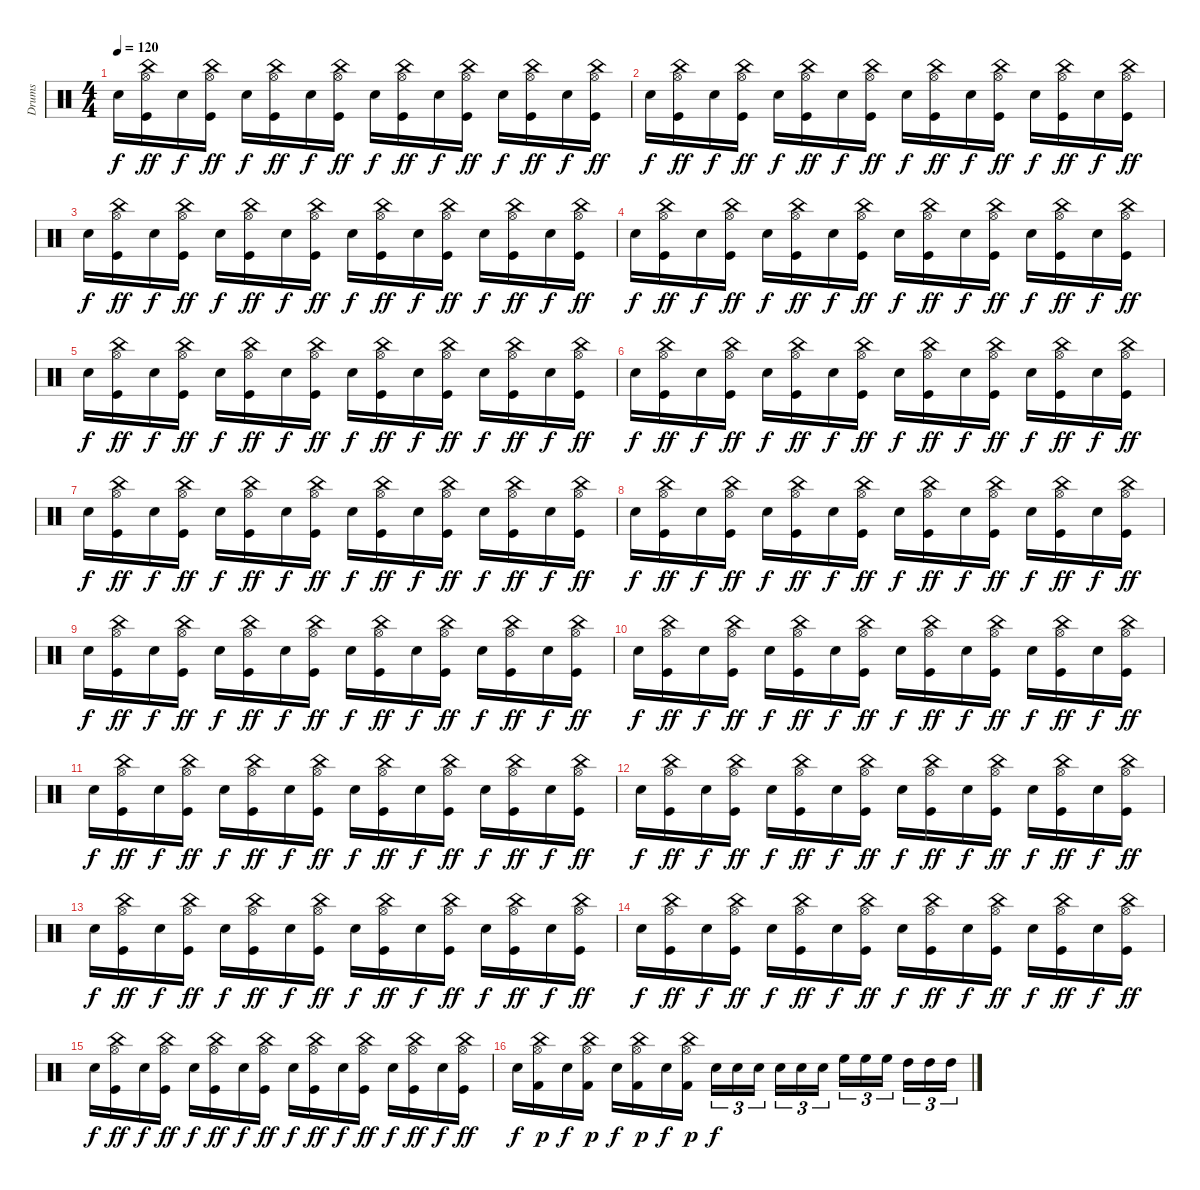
\track ("Drums" "Drums") {instrument percussion}
\staff {score}
\articulation defaults
\ts (4 4)
\tempo 120
\clef neutral
\ks c "Electric Snare (hit)".16{dy f}
("China (hit)" "Hi-Hat (open)" "Kick (hit)").16{dy ff} "Electric Snare (hit)".16{dy f} ("China (hit)" "Hi-Hat (open)" "Kick (hit)").16{dy ff} "Electric Snare (hit)".16{dy f} ("China (hit)" "Hi-Hat (open)" "Kick (hit)").16{dy ff} "Electric Snare (hit)".16{dy f} ("China (hit)" "Hi-Hat (open)" "Kick (hit)").16{dy ff} "Electric Snare (hit)".16{dy f} ("China (hit)" "Hi-Hat (open)" "Kick (hit)").16{dy ff} "Electric Snare (hit)".16{dy f} ("China (hit)" "Hi-Hat (open)" "Kick (hit)").16{dy ff} "Electric Snare (hit)".16{dy f} ("China (hit)" "Hi-Hat (open)" "Kick (hit)").16{dy ff} "Electric Snare (hit)".16{dy f} ("China (hit)" "Hi-Hat (open)" "Kick (hit)").16{dy ff} |
"Electric Snare (hit)".16{dy f} ("China (hit)" "Hi-Hat (open)" "Kick (hit)").16{dy ff} "Electric Snare (hit)".16{dy f} ("China (hit)" "Hi-Hat (open)" "Kick (hit)").16{dy ff} "Electric Snare (hit)".16{dy f} ("China (hit)" "Hi-Hat (open)" "Kick (hit)").16{dy ff} "Electric Snare (hit)".16{dy f} ("China (hit)" "Hi-Hat (open)" "Kick (hit)").16{dy ff} "Electric Snare (hit)".16{dy f} ("China (hit)" "Hi-Hat (open)" "Kick (hit)").16{dy ff} "Electric Snare (hit)".16{dy f} ("China (hit)" "Hi-Hat (open)" "Kick (hit)").16{dy ff} "Electric Snare (hit)".16{dy f} ("China (hit)" "Hi-Hat (open)" "Kick (hit)").16{dy ff} "Electric Snare (hit)".16{dy f} ("China (hit)" "Hi-Hat (open)" "Kick (hit)").16{dy ff} |
"Electric Snare (hit)".16{dy f} ("China (hit)" "Hi-Hat (open)" "Kick (hit)").16{dy ff} "Electric Snare (hit)".16{dy f} ("China (hit)" "Hi-Hat (open)" "Kick (hit)").16{dy ff} "Electric Snare (hit)".16{dy f} ("China (hit)" "Hi-Hat (open)" "Kick (hit)").16{dy ff} "Electric Snare (hit)".16{dy f} ("China (hit)" "Hi-Hat (open)" "Kick (hit)").16{dy ff} "Electric Snare (hit)".16{dy f} ("China (hit)" "Hi-Hat (open)" "Kick (hit)").16{dy ff} "Electric Snare (hit)".16{dy f} ("China (hit)" "Hi-Hat (open)" "Kick (hit)").16{dy ff} "Electric Snare (hit)".16{dy f} ("China (hit)" "Hi-Hat (open)" "Kick (hit)").16{dy ff} "Electric Snare (hit)".16{dy f} ("China (hit)" "Hi-Hat (open)" "Kick (hit)").16{dy ff} |
"Electric Snare (hit)".16{dy f} ("China (hit)" "Hi-Hat (open)" "Kick (hit)").16{dy ff} "Electric Snare (hit)".16{dy f} ("China (hit)" "Hi-Hat (open)" "Kick (hit)").16{dy ff} "Electric Snare (hit)".16{dy f} ("China (hit)" "Hi-Hat (open)" "Kick (hit)").16{dy ff} "Electric Snare (hit)".16{dy f} ("China (hit)" "Hi-Hat (open)" "Kick (hit)").16{dy ff} "Electric Snare (hit)".16{dy f} ("China (hit)" "Hi-Hat (open)" "Kick (hit)").16{dy ff} "Electric Snare (hit)".16{dy f} ("China (hit)" "Hi-Hat (open)" "Kick (hit)").16{dy ff} "Electric Snare (hit)".16{dy f} ("China (hit)" "Hi-Hat (open)" "Kick (hit)").16{dy ff} "Electric Snare (hit)".16{dy f} ("China (hit)" "Hi-Hat (open)" "Kick (hit)").16{dy ff} |
"Electric Snare (hit)".16{dy f} ("China (hit)" "Hi-Hat (open)" "Kick (hit)").16{dy ff} "Electric Snare (hit)".16{dy f} ("China (hit)" "Hi-Hat (open)" "Kick (hit)").16{dy ff} "Electric Snare (hit)".16{dy f} ("China (hit)" "Hi-Hat (open)" "Kick (hit)").16{dy ff} "Electric Snare (hit)".16{dy f} ("China (hit)" "Hi-Hat (open)" "Kick (hit)").16{dy ff} "Electric Snare (hit)".16{dy f} ("China (hit)" "Hi-Hat (open)" "Kick (hit)").16{dy ff} "Electric Snare (hit)".16{dy f} ("China (hit)" "Hi-Hat (open)" "Kick (hit)").16{dy ff} "Electric Snare (hit)".16{dy f} ("China (hit)" "Hi-Hat (open)" "Kick (hit)").16{dy ff} "Electric Snare (hit)".16{dy f} ("China (hit)" "Hi-Hat (open)" "Kick (hit)").16{dy ff} |
"Electric Snare (hit)".16{dy f} ("China (hit)" "Hi-Hat (open)" "Kick (hit)").16{dy ff} "Electric Snare (hit)".16{dy f} ("China (hit)" "Hi-Hat (open)" "Kick (hit)").16{dy ff} "Electric Snare (hit)".16{dy f} ("China (hit)" "Hi-Hat (open)" "Kick (hit)").16{dy ff} "Electric Snare (hit)".16{dy f} ("China (hit)" "Hi-Hat (open)" "Kick (hit)").16{dy ff} "Electric Snare (hit)".16{dy f} ("China (hit)" "Hi-Hat (open)" "Kick (hit)").16{dy ff} "Electric Snare (hit)".16{dy f} ("China (hit)" "Hi-Hat (open)" "Kick (hit)").16{dy ff} "Electric Snare (hit)".16{dy f} ("China (hit)" "Hi-Hat (open)" "Kick (hit)").16{dy ff} "Electric Snare (hit)".16{dy f} ("China (hit)" "Hi-Hat (open)" "Kick (hit)").16{dy ff} |
"Electric Snare (hit)".16{dy f} ("China (hit)" "Hi-Hat (open)" "Kick (hit)").16{dy ff} "Electric Snare (hit)".16{dy f} ("China (hit)" "Hi-Hat (open)" "Kick (hit)").16{dy ff} "Electric Snare (hit)".16{dy f} ("China (hit)" "Hi-Hat (open)" "Kick (hit)").16{dy ff} "Electric Snare (hit)".16{dy f} ("China (hit)" "Hi-Hat (open)" "Kick (hit)").16{dy ff} "Electric Snare (hit)".16{dy f} ("China (hit)" "Hi-Hat (open)" "Kick (hit)").16{dy ff} "Electric Snare (hit)".16{dy f} ("China (hit)" "Hi-Hat (open)" "Kick (hit)").16{dy ff} "Electric Snare (hit)".16{dy f} ("China (hit)" "Hi-Hat (open)" "Kick (hit)").16{dy ff} "Electric Snare (hit)".16{dy f} ("China (hit)" "Hi-Hat (open)" "Kick (hit)").16{dy ff} |
"Electric Snare (hit)".16{dy f} ("China (hit)" "Hi-Hat (open)" "Kick (hit)").16{dy ff} "Electric Snare (hit)".16{dy f} ("China (hit)" "Hi-Hat (open)" "Kick (hit)").16{dy ff} "Electric Snare (hit)".16{dy f} ("China (hit)" "Hi-Hat (open)" "Kick (hit)").16{dy ff} "Electric Snare (hit)".16{dy f} ("China (hit)" "Hi-Hat (open)" "Kick (hit)").16{dy ff} "Electric Snare (hit)".16{dy f} ("China (hit)" "Hi-Hat (open)" "Kick (hit)").16{dy ff} "Electric Snare (hit)".16{dy f} ("China (hit)" "Hi-Hat (open)" "Kick (hit)").16{dy ff} "Electric Snare (hit)".16{dy f} ("China (hit)" "Hi-Hat (open)" "Kick (hit)").16{dy ff} "Electric Snare (hit)".16{dy f} ("China (hit)" "Hi-Hat (open)" "Kick (hit)").16{dy ff} |
"Electric Snare (hit)".16{dy f} ("China (hit)" "Hi-Hat (open)" "Kick (hit)").16{dy ff} "Electric Snare (hit)".16{dy f} ("China (hit)" "Hi-Hat (open)" "Kick (hit)").16{dy ff} "Electric Snare (hit)".16{dy f} ("China (hit)" "Hi-Hat (open)" "Kick (hit)").16{dy ff} "Electric Snare (hit)".16{dy f} ("China (hit)" "Hi-Hat (open)" "Kick (hit)").16{dy ff} "Electric Snare (hit)".16{dy f} ("China (hit)" "Hi-Hat (open)" "Kick (hit)").16{dy ff} "Electric Snare (hit)".16{dy f} ("China (hit)" "Hi-Hat (open)" "Kick (hit)").16{dy ff} "Electric Snare (hit)".16{dy f} ("China (hit)" "Hi-Hat (open)" "Kick (hit)").16{dy ff} "Electric Snare (hit)".16{dy f} ("China (hit)" "Hi-Hat (open)" "Kick (hit)").16{dy ff} |
"Electric Snare (hit)".16{dy f} ("China (hit)" "Hi-Hat (open)" "Kick (hit)").16{dy ff} "Electric Snare (hit)".16{dy f} ("China (hit)" "Hi-Hat (open)" "Kick (hit)").16{dy ff} "Electric Snare (hit)".16{dy f} ("China (hit)" "Hi-Hat (open)" "Kick (hit)").16{dy ff} "Electric Snare (hit)".16{dy f} ("China (hit)" "Hi-Hat (open)" "Kick (hit)").16{dy ff} "Electric Snare (hit)".16{dy f} ("China (hit)" "Hi-Hat (open)" "Kick (hit)").16{dy ff} "Electric Snare (hit)".16{dy f} ("China (hit)" "Hi-Hat (open)" "Kick (hit)").16{dy ff} "Electric Snare (hit)".16{dy f} ("China (hit)" "Hi-Hat (open)" "Kick (hit)").16{dy ff} "Electric Snare (hit)".16{dy f} ("China (hit)" "Hi-Hat (open)" "Kick (hit)").16{dy ff} |
"Electric Snare (hit)".16{dy f} ("China (hit)" "Hi-Hat (open)" "Kick (hit)").16{dy ff} "Electric Snare (hit)".16{dy f} ("China (hit)" "Hi-Hat (open)" "Kick (hit)").16{dy ff} "Electric Snare (hit)".16{dy f} ("China (hit)" "Hi-Hat (open)" "Kick (hit)").16{dy ff} "Electric Snare (hit)".16{dy f} ("China (hit)" "Hi-Hat (open)" "Kick (hit)").16{dy ff} "Electric Snare (hit)".16{dy f} ("China (hit)" "Hi-Hat (open)" "Kick (hit)").16{dy ff} "Electric Snare (hit)".16{dy f} ("China (hit)" "Hi-Hat (open)" "Kick (hit)").16{dy ff} "Electric Snare (hit)".16{dy f} ("China (hit)" "Hi-Hat (open)" "Kick (hit)").16{dy ff} "Electric Snare (hit)".16{dy f} ("China (hit)" "Hi-Hat (open)" "Kick (hit)").16{dy ff} |
"Electric Snare (hit)".16{dy f} ("China (hit)" "Hi-Hat (open)" "Kick (hit)").16{dy ff} "Electric Snare (hit)".16{dy f} ("China (hit)" "Hi-Hat (open)" "Kick (hit)").16{dy ff} "Electric Snare (hit)".16{dy f} ("China (hit)" "Hi-Hat (open)" "Kick (hit)").16{dy ff} "Electric Snare (hit)".16{dy f} ("China (hit)" "Hi-Hat (open)" "Kick (hit)").16{dy ff} "Electric Snare (hit)".16{dy f} ("China (hit)" "Hi-Hat (open)" "Kick (hit)").16{dy ff} "Electric Snare (hit)".16{dy f} ("China (hit)" "Hi-Hat (open)" "Kick (hit)").16{dy ff} "Electric Snare (hit)".16{dy f} ("China (hit)" "Hi-Hat (open)" "Kick (hit)").16{dy ff} "Electric Snare (hit)".16{dy f} ("China (hit)" "Hi-Hat (open)" "Kick (hit)").16{dy ff} |
"Electric Snare (hit)".16{dy f} ("China (hit)" "Hi-Hat (open)" "Kick (hit)").16{dy ff} "Electric Snare (hit)".16{dy f} ("China (hit)" "Hi-Hat (open)" "Kick (hit)").16{dy ff} "Electric Snare (hit)".16{dy f} ("China (hit)" "Hi-Hat (open)" "Kick (hit)").16{dy ff} "Electric Snare (hit)".16{dy f} ("China (hit)" "Hi-Hat (open)" "Kick (hit)").16{dy ff} "Electric Snare (hit)".16{dy f} ("China (hit)" "Hi-Hat (open)" "Kick (hit)").16{dy ff} "Electric Snare (hit)".16{dy f} ("China (hit)" "Hi-Hat (open)" "Kick (hit)").16{dy ff} "Electric Snare (hit)".16{dy f} ("China (hit)" "Hi-Hat (open)" "Kick (hit)").16{dy ff} "Electric Snare (hit)".16{dy f} ("China (hit)" "Hi-Hat (open)" "Kick (hit)").16{dy ff} |
"Electric Snare (hit)".16{dy f} ("China (hit)" "Hi-Hat (open)" "Kick (hit)").16{dy ff} "Electric Snare (hit)".16{dy f} ("China (hit)" "Hi-Hat (open)" "Kick (hit)").16{dy ff} "Electric Snare (hit)".16{dy f} ("China (hit)" "Hi-Hat (open)" "Kick (hit)").16{dy ff} "Electric Snare (hit)".16{dy f} ("China (hit)" "Hi-Hat (open)" "Kick (hit)").16{dy ff} "Electric Snare (hit)".16{dy f} ("China (hit)" "Hi-Hat (open)" "Kick (hit)").16{dy ff} "Electric Snare (hit)".16{dy f} ("China (hit)" "Hi-Hat (open)" "Kick (hit)").16{dy ff} "Electric Snare (hit)".16{dy f} ("China (hit)" "Hi-Hat (open)" "Kick (hit)").16{dy ff} "Electric Snare (hit)".16{dy f} ("China (hit)" "Hi-Hat (open)" "Kick (hit)").16{dy ff} |
"Electric Snare (hit)".16{dy f} ("China (hit)" "Hi-Hat (open)" "Kick (hit)").16{dy ff} "Electric Snare (hit)".16{dy f} ("China (hit)" "Hi-Hat (open)" "Kick (hit)").16{dy ff} "Electric Snare (hit)".16{dy f} ("China (hit)" "Hi-Hat (open)" "Kick (hit)").16{dy ff} "Electric Snare (hit)".16{dy f} ("China (hit)" "Hi-Hat (open)" "Kick (hit)").16{dy ff} "Electric Snare (hit)".16{dy f} ("China (hit)" "Hi-Hat (open)" "Kick (hit)").16{dy ff} "Electric Snare (hit)".16{dy f} ("China (hit)" "Hi-Hat (open)" "Kick (hit)").16{dy ff} "Electric Snare (hit)".16{dy f} ("China (hit)" "Hi-Hat (open)" "Kick (hit)").16{dy ff} "Electric Snare (hit)".16{dy f} ("China (hit)" "Hi-Hat (open)" "Kick (hit)").16{dy ff} |
"Electric Snare (hit)".16{dy f} ("Hi-Hat (open)" "China (hit)" "Kick (hit) 2").16{dy p} "Electric Snare (hit)".16{dy f} ("Hi-Hat (open)" "China (hit)" "Kick (hit) 2").16{dy p} "Electric Snare (hit)".16{dy f} ("Hi-Hat (open)" "China (hit)" "Kick (hit) 2").16{dy p} "Electric Snare (hit)".16{dy f} ("Hi-Hat (open)" "China (hit)" "Kick (hit) 2").16{dy p} "Electric Snare (hit)".16{tu (3 2) dy f} "Electric Snare (hit)".16{tu (3 2)} "Electric Snare (hit)".16{tu (3 2)} "Electric Snare (hit)".16{tu (3 2)} "Electric Snare (hit)".16{tu (3 2)} "Electric Snare (hit)".16{tu (3 2)} "High Floor Tom (hit)".16{tu (3 2)} "High Floor Tom (hit)".16{tu (3 2)} "High Floor Tom (hit)".16{tu (3 2)} "High Tom (hit)".16{tu (3 2)} "High Tom (hit)".16{tu (3 2)} "High Tom (hit)".16{tu (3 2)}
